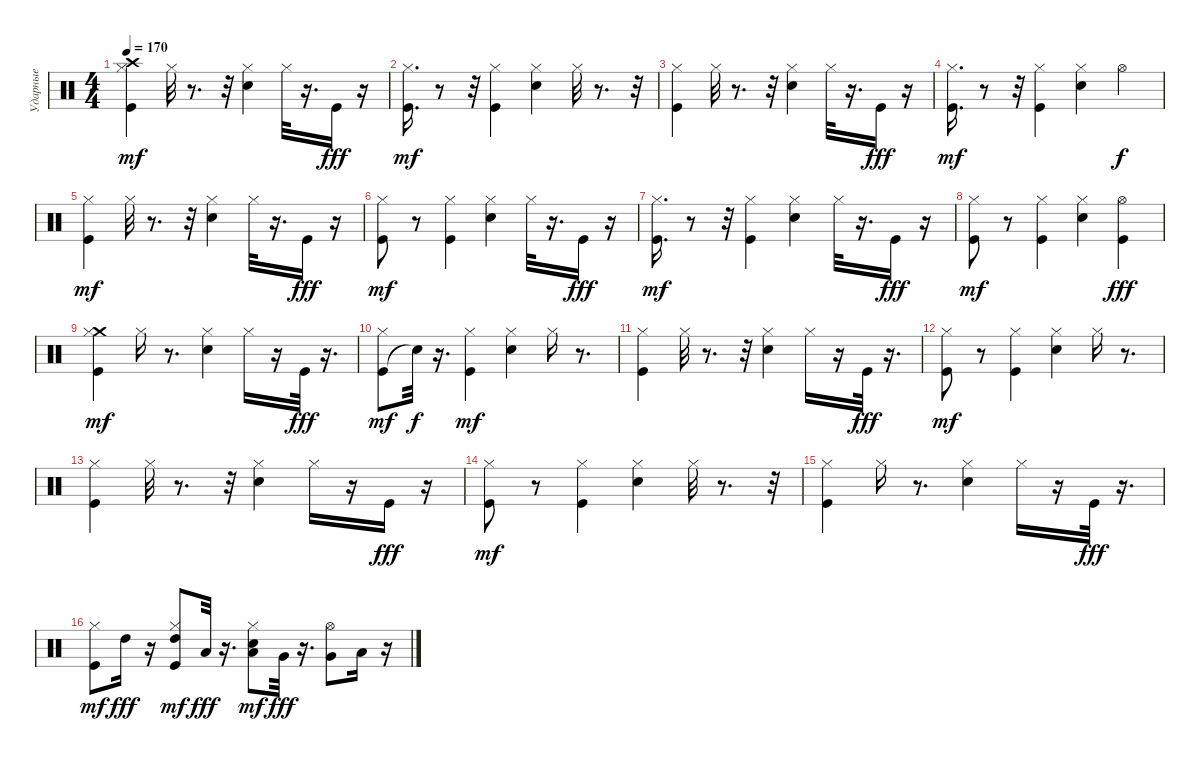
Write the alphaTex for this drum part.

\track ("Ударные" "Ударные") {instrument percussion}
\staff {score}
\articulation defaults
\ts (4 4)
\tempo 170
\clef neutral
\ks c
("Kick (hit)" "Hi-Hat (closed)" "Crash high (hit)").4{dy mf} "Hi-Hat (closed)".32 r.8{d} r.32 ("Snare (hit) 2" "Hi-Hat (closed)").4 "Hi-Hat (closed)".32 r.16{d} "Kick (hit)".16{dy fff} r.16 |
("Kick (hit)" "Hi-Hat (closed)").16{d dy mf} r.8 r.32 ("Kick (hit)" "Hi-Hat (closed)").4 ("Snare (hit) 2" "Hi-Hat (closed)").4 "Hi-Hat (closed)".32 r.8{d} r.32 |
("Kick (hit)" "Hi-Hat (closed)").4 "Hi-Hat (closed)".32 r.8{d} r.32 ("Snare (hit) 2" "Hi-Hat (closed)").4 "Hi-Hat (closed)".32 r.16{d} "Kick (hit)".16{dy fff} r.16 |
("Kick (hit)" "Hi-Hat (closed)").16{d dy mf} r.8 r.32 ("Kick (hit)" "Hi-Hat (closed)").4 ("Snare (hit) 2" "Hi-Hat (closed)").4 "Hi-Hat (open)".4{dy f} |
("Kick (hit)" "Hi-Hat (closed)").4{dy mf} "Hi-Hat (closed)".32 r.8{d} r.32 ("Snare (hit) 2" "Hi-Hat (closed)").4 "Hi-Hat (closed)".32 r.16{d} "Kick (hit)".16{dy fff} r.16 |
("Kick (hit)" "Hi-Hat (closed)").8{dy mf} r.8 ("Kick (hit)" "Hi-Hat (closed)").4 ("Snare (hit) 2" "Hi-Hat (closed)").4 "Hi-Hat (closed)".32 r.16{d} "Kick (hit)".16{dy fff} r.16 |
("Kick (hit)" "Hi-Hat (closed)").16{d dy mf} r.8 r.32 ("Kick (hit)" "Hi-Hat (closed)").4 ("Snare (hit) 2" "Hi-Hat (closed)").4 "Hi-Hat (closed)".32 r.16{d} "Kick (hit)".16{dy fff} r.16 |
("Kick (hit)" "Hi-Hat (closed)").8{dy mf} r.8 ("Kick (hit)" "Hi-Hat (closed)").4 ("Snare (hit) 2" "Hi-Hat (closed)").4 ("Kick (hit)" "Hi-Hat (open)").4{dy fff} |
("Kick (hit)" "Crash medium (hit)" "Hi-Hat (closed)").4{dy mf} "Hi-Hat (closed)".16 r.8{d} ("Snare (hit) 2" "Hi-Hat (closed)").4 "Hi-Hat (closed)".16 r.16 "Kick (hit)".32{dy fff} r.16{d} |
("Kick (hit)" "Hi-Hat (closed)").8{dy mf} "Snare (hit)"{t}.32{dy f} r.16{d} ("Kick (hit)" "Hi-Hat (closed)").4{dy mf} ("Snare (hit) 2" "Hi-Hat (closed)").4 "Hi-Hat (closed)".16 r.8{d} |
("Kick (hit)" "Hi-Hat (closed)").4 "Hi-Hat (closed)".32 r.8{d} r.32 ("Snare (hit) 2" "Hi-Hat (closed)").4 "Hi-Hat (closed)".16 r.16 "Kick (hit)".32{dy fff} r.16{d} |
("Kick (hit)" "Hi-Hat (closed)").8{dy mf} r.8 ("Kick (hit)" "Hi-Hat (closed)").4 ("Snare (hit) 2" "Hi-Hat (closed)").4 "Hi-Hat (closed)".16 r.8{d} |
("Kick (hit)" "Hi-Hat (closed)").4 "Hi-Hat (closed)".32 r.8{d} r.32 ("Snare (hit) 2" "Hi-Hat (closed)").4 "Hi-Hat (closed)".16 r.16 "Kick (hit)".16{dy fff} r.16 |
("Kick (hit)" "Hi-Hat (closed)").8{dy mf} r.8 ("Kick (hit)" "Hi-Hat (closed)").4 ("Snare (hit) 2" "Hi-Hat (closed)").4 "Hi-Hat (closed)".32 r.8{d} r.32 |
("Kick (hit)" "Hi-Hat (closed)").4 "Hi-Hat (closed)".16 r.8{d} ("Snare (hit) 2" "Hi-Hat (closed)").4 "Hi-Hat (closed)".16 r.16 "Kick (hit)".32{dy fff} r.16{d} |
("Kick (hit)" "Hi-Hat (closed)").8{dy mf} "High Tom (hit)".16{dy fff} r.16 ("High Tom (hit)" "Kick (hit)" "Hi-Hat (closed)").8{dy mf} "Low Tom (hit)".32{dy fff} r.16{d} ("Low Tom (hit)" "Snare (hit) 2" "Hi-Hat (closed)").8{dy mf} "Very Low Tom (hit)".32{dy fff} r.16{d} ("Very Low Tom (hit)" "Hi-Hat (open)").8 "Low Floor Tom (hit)".16 r.16
